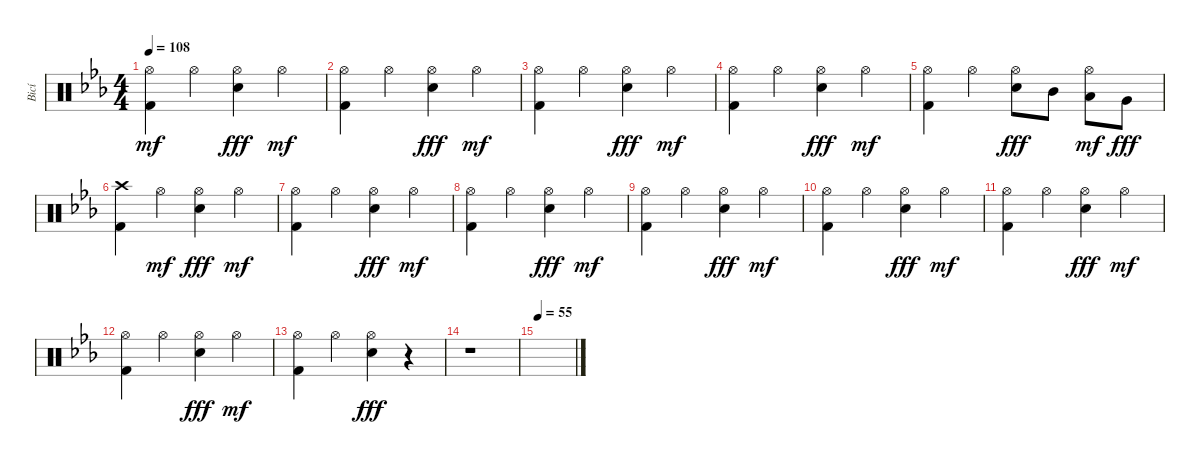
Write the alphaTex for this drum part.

\track ("Bicí" "Bicí") {instrument percussion}
\staff {score}
\articulation defaults
\ts (4 4)
\tempo 108
\clef neutral
\ks eb
("Kick (hit) 2" "Hi-Hat (open)").4{dy mf} "Hi-Hat (open)".4 ("Hi-Hat (open)" "Snare (hit) 2").4{dy fff} "Hi-Hat (open)".4{dy mf} |
("Kick (hit) 2" "Hi-Hat (open)").4 "Hi-Hat (open)".4 ("Hi-Hat (open)" "Snare (hit) 2").4{dy fff} "Hi-Hat (open)".4{dy mf} |
("Kick (hit) 2" "Hi-Hat (open)").4 "Hi-Hat (open)".4 ("Hi-Hat (open)" "Snare (hit) 2").4{dy fff} "Hi-Hat (open)".4{dy mf} |
("Kick (hit) 2" "Hi-Hat (open)").4 "Hi-Hat (open)".4 ("Hi-Hat (open)" "Snare (hit) 2").4{dy fff} "Hi-Hat (open)".4{dy mf} |
("Kick (hit) 2" "Hi-Hat (open)").4 "Hi-Hat (open)".4 ("Hi-Hat (open)" "Snare (hit) 2").8{dy fff} "Mid Tom (hit)".8 ("Low Tom (hit)" "Hi-Hat (open)").8{dy mf} "Very Low Tom (hit)".8{dy fff} |
("Kick (hit) 2" "Crash high (hit)").4 "Hi-Hat (open)".4{dy mf} ("Hi-Hat (open)" "Snare (hit) 2").4{dy fff} "Hi-Hat (open)".4{dy mf} |
("Kick (hit) 2" "Hi-Hat (open)").4 "Hi-Hat (open)".4 ("Hi-Hat (open)" "Snare (hit) 2").4{dy fff} "Hi-Hat (open)".4{dy mf} |
("Kick (hit) 2" "Hi-Hat (open)").4 "Hi-Hat (open)".4 ("Hi-Hat (open)" "Snare (hit) 2").4{dy fff} "Hi-Hat (open)".4{dy mf} |
("Kick (hit) 2" "Hi-Hat (open)").4 "Hi-Hat (open)".4 ("Hi-Hat (open)" "Snare (hit) 2").4{dy fff} "Hi-Hat (open)".4{dy mf} |
("Kick (hit) 2" "Hi-Hat (open)").4 "Hi-Hat (open)".4 ("Hi-Hat (open)" "Snare (hit) 2").4{dy fff} "Hi-Hat (open)".4{dy mf} |
("Kick (hit) 2" "Hi-Hat (open)").4 "Hi-Hat (open)".4 ("Hi-Hat (open)" "Snare (hit) 2").4{dy fff} "Hi-Hat (open)".4{dy mf} |
("Kick (hit) 2" "Hi-Hat (open)").4 "Hi-Hat (open)".4 ("Hi-Hat (open)" "Snare (hit) 2").4{dy fff} "Hi-Hat (open)".4{dy mf} |
("Kick (hit) 2" "Hi-Hat (open)").4 "Hi-Hat (open)".4 ("Hi-Hat (open)" "Snare (hit) 2").4{dy fff} r.4 |
r.1 |
\tempo 55
